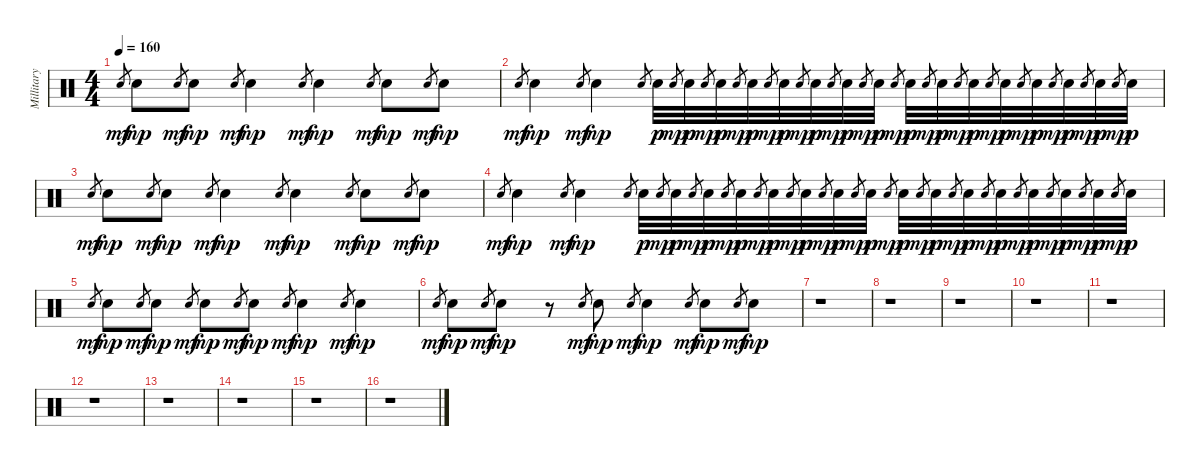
\track ("Millitary snare" "Millitary ") {instrument percussion}
\staff {score}
\articulation defaults
\ts (4 4)
\tempo 160
\clef neutral
\ks c "Electric Snare (hit)".8{gr dy mf} "Electric Snare (hit)".8{dy mp} "Electric Snare (hit)".8{gr dy mf} "Electric Snare (hit)".8{dy mp} "Electric Snare (hit)".8{gr dy mf} "Electric Snare (hit)".4{dy mp} "Electric Snare (hit)".8{gr dy mf} "Electric Snare (hit)".4{dy mp} "Electric Snare (hit)".8{gr dy mf} "Electric Snare (hit)".8{dy mp} "Electric Snare (hit)".8{gr dy mf} "Electric Snare (hit)".8{dy mp}
|
"Electric Snare (hit)".8{gr dy mf} "Electric Snare (hit)".4{dy mp} "Electric Snare (hit)".8{gr dy mf} "Electric Snare (hit)".4{dy mp} "Electric Snare (hit)".8{gr} "Electric Snare (hit)".32{dy p} "Electric Snare (hit)".8{gr dy mp} "Electric Snare (hit)".32{dy p} "Electric Snare (hit)".8{gr dy mp} "Electric Snare (hit)".32{dy p} "Electric Snare (hit)".8{gr dy mp} "Electric Snare (hit)".32{dy p} "Electric Snare (hit)".8{gr dy mp} "Electric Snare (hit)".32{dy p} "Electric Snare (hit)".8{gr dy mp} "Electric Snare (hit)".32{dy p} "Electric Snare (hit)".8{gr dy mp} "Electric Snare (hit)".32{dy p} "Electric Snare (hit)".8{gr dy mp} "Electric Snare (hit)".32{dy p} "Electric Snare (hit)".8{gr dy mp} "Electric Snare (hit)".32{dy p} "Electric Snare (hit)".8{gr dy mp} "Electric Snare (hit)".32{dy p} "Electric Snare (hit)".8{gr dy mp} "Electric Snare (hit)".32{dy p} "Electric Snare (hit)".8{gr dy mp} "Electric Snare (hit)".32{dy p} "Electric Snare (hit)".8{gr dy mp} "Electric Snare (hit)".32{dy p} "Electric Snare (hit)".8{gr dy mp} "Electric Snare (hit)".32{dy p} "Electric Snare (hit)".8{gr dy mp} "Electric Snare (hit)".32{dy p} "Electric Snare (hit)".8{gr dy mp} "Electric Snare (hit)".32{dy p} |
"Electric Snare (hit)".8{gr dy mf} "Electric Snare (hit)".8{dy mp} "Electric Snare (hit)".8{gr dy mf} "Electric Snare (hit)".8{dy mp} "Electric Snare (hit)".8{gr dy mf} "Electric Snare (hit)".4{dy mp} "Electric Snare (hit)".8{gr dy mf} "Electric Snare (hit)".4{dy mp} "Electric Snare (hit)".8{gr dy mf} "Electric Snare (hit)".8{dy mp} "Electric Snare (hit)".8{gr dy mf} "Electric Snare (hit)".8{dy mp} |
"Electric Snare (hit)".8{gr dy mf} "Electric Snare (hit)".4{dy mp} "Electric Snare (hit)".8{gr dy mf} "Electric Snare (hit)".4{dy mp} "Electric Snare (hit)".8{gr} "Electric Snare (hit)".32{dy p} "Electric Snare (hit)".8{gr dy mp} "Electric Snare (hit)".32{dy p} "Electric Snare (hit)".8{gr dy mp} "Electric Snare (hit)".32{dy p} "Electric Snare (hit)".8{gr dy mp} "Electric Snare (hit)".32{dy p} "Electric Snare (hit)".8{gr dy mp} "Electric Snare (hit)".32{dy p} "Electric Snare (hit)".8{gr dy mp} "Electric Snare (hit)".32{dy p} "Electric Snare (hit)".8{gr dy mp} "Electric Snare (hit)".32{dy p} "Electric Snare (hit)".8{gr dy mp} "Electric Snare (hit)".32{dy p} "Electric Snare (hit)".8{gr dy mp} "Electric Snare (hit)".32{dy p} "Electric Snare (hit)".8{gr dy mp} "Electric Snare (hit)".32{dy p} "Electric Snare (hit)".8{gr dy mp} "Electric Snare (hit)".32{dy p} "Electric Snare (hit)".8{gr dy mp} "Electric Snare (hit)".32{dy p} "Electric Snare (hit)".8{gr dy mp} "Electric Snare (hit)".32{dy p} "Electric Snare (hit)".8{gr dy mp} "Electric Snare (hit)".32{dy p} "Electric Snare (hit)".8{gr dy mp} "Electric Snare (hit)".32{dy p} "Electric Snare (hit)".8{gr dy mp} "Electric Snare (hit)".32{dy p} |
"Electric Snare (hit)".8{gr dy mf} "Electric Snare (hit)".8{dy mp} "Electric Snare (hit)".8{gr dy mf} "Electric Snare (hit)".8{dy mp} "Electric Snare (hit)".8{gr dy mf} "Electric Snare (hit)".8{dy mp} "Electric Snare (hit)".8{gr dy mf} "Electric Snare (hit)".8{dy mp} "Electric Snare (hit)".8{gr dy mf} "Electric Snare (hit)".4{dy mp} "Electric Snare (hit)".8{gr dy mf} "Electric Snare (hit)".4{dy mp} |
"Electric Snare (hit)".8{gr dy mf} "Electric Snare (hit)".8{dy mp} "Electric Snare (hit)".8{gr dy mf} "Electric Snare (hit)".8{dy mp} r.8 "Electric Snare (hit)".8{gr dy mf} "Electric Snare (hit)".8{dy mp} "Electric Snare (hit)".8{gr dy mf} "Electric Snare (hit)".4{dy mp} "Electric Snare (hit)".8{gr dy mf} "Electric Snare (hit)".8{dy mp} "Electric Snare (hit)".8{gr dy mf} "Electric Snare (hit)".8{dy mp} |
r.1 |
r.1 |
r.1 |
r.1 |
r.1 |
r.1 |
r.1 |
r.1 |
r.1 |
r.1
